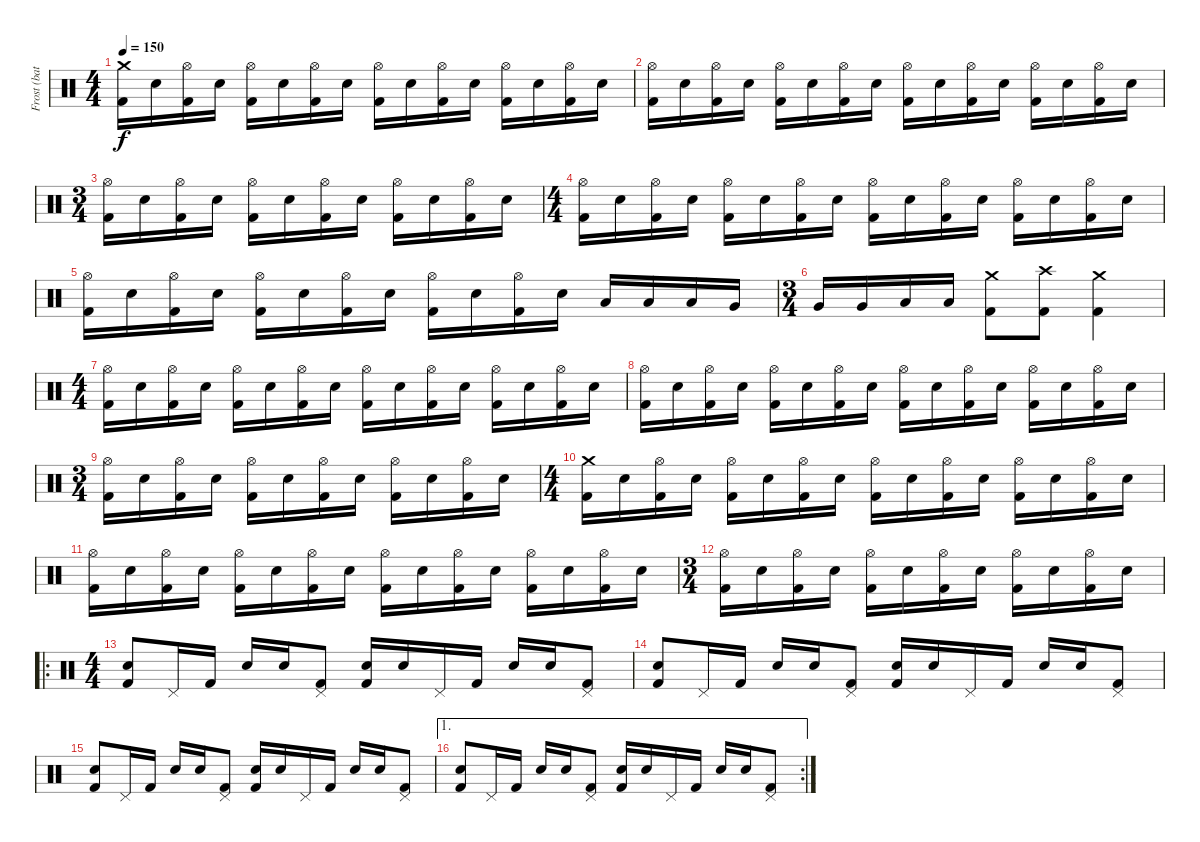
\track ("Frost (battery)" "Frost (bat") {instrument percussion}
\staff {score}
\articulation defaults
\ts (4 4)
\tempo 150
\clef neutral
\ks c
("Crash medium (hit)" "Kick (hit) 2").16{dy f} "Electric Snare (hit)".16 ("Hi-Hat (open)" "Kick (hit) 2").16 "Electric Snare (hit)".16 ("Hi-Hat (open)" "Kick (hit) 2").16 "Electric Snare (hit)".16 ("Hi-Hat (open)" "Kick (hit) 2").16 "Electric Snare (hit)".16 ("Hi-Hat (open)" "Kick (hit) 2").16 "Electric Snare (hit)".16 ("Hi-Hat (open)" "Kick (hit) 2").16 "Electric Snare (hit)".16 ("Hi-Hat (open)" "Kick (hit) 2").16 "Electric Snare (hit)".16 ("Hi-Hat (open)" "Kick (hit) 2").16 "Electric Snare (hit)".16 |
("Hi-Hat (open)" "Kick (hit) 2").16 "Electric Snare (hit)".16 ("Hi-Hat (open)" "Kick (hit) 2").16 "Electric Snare (hit)".16 ("Hi-Hat (open)" "Kick (hit) 2").16 "Electric Snare (hit)".16 ("Hi-Hat (open)" "Kick (hit) 2").16 "Electric Snare (hit)".16 ("Hi-Hat (open)" "Kick (hit) 2").16 "Electric Snare (hit)".16 ("Hi-Hat (open)" "Kick (hit) 2").16 "Electric Snare (hit)".16 ("Hi-Hat (open)" "Kick (hit) 2").16 "Electric Snare (hit)".16 ("Hi-Hat (open)" "Kick (hit) 2").16 "Electric Snare (hit)".16 |
\ts (3 4)
("Hi-Hat (open)" "Kick (hit) 2").16 "Electric Snare (hit)".16 ("Hi-Hat (open)" "Kick (hit) 2").16 "Electric Snare (hit)".16 ("Hi-Hat (open)" "Kick (hit) 2").16 "Electric Snare (hit)".16 ("Hi-Hat (open)" "Kick (hit) 2").16 "Electric Snare (hit)".16 ("Hi-Hat (open)" "Kick (hit) 2").16 "Electric Snare (hit)".16 ("Hi-Hat (open)" "Kick (hit) 2").16 "Electric Snare (hit)".16 |
\ts (4 4)
("Hi-Hat (open)" "Kick (hit) 2").16 "Electric Snare (hit)".16 ("Hi-Hat (open)" "Kick (hit) 2").16 "Electric Snare (hit)".16 ("Hi-Hat (open)" "Kick (hit) 2").16 "Electric Snare (hit)".16 ("Hi-Hat (open)" "Kick (hit) 2").16 "Electric Snare (hit)".16 ("Hi-Hat (open)" "Kick (hit) 2").16 "Electric Snare (hit)".16 ("Hi-Hat (open)" "Kick (hit) 2").16 "Electric Snare (hit)".16 ("Hi-Hat (open)" "Kick (hit) 2").16 "Electric Snare (hit)".16 ("Hi-Hat (open)" "Kick (hit) 2").16 "Electric Snare (hit)".16 |
("Hi-Hat (open)" "Kick (hit) 2").16 "Electric Snare (hit)".16 ("Hi-Hat (open)" "Kick (hit) 2").16 "Electric Snare (hit)".16 ("Hi-Hat (open)" "Kick (hit) 2").16 "Electric Snare (hit)".16 ("Hi-Hat (open)" "Kick (hit) 2").16 "Electric Snare (hit)".16 ("Hi-Hat (open)" "Kick (hit) 2").16 "Electric Snare (hit)".16 ("Hi-Hat (open)" "Kick (hit) 2").16 "Electric Snare (hit)".16 "Low Tom (hit)".16 "Low Tom (hit)".16 "Low Tom (hit)".16 "Very Low Tom (hit)".16 |
\ts (3 4)
"Very Low Tom (hit)".16 "Very Low Tom (hit)".16 "Low Floor Tom (hit)".16 "Low Floor Tom (hit)".16 ("Crash medium (hit)" "Kick (hit) 2").8 ("Crash high (hit)" "Kick (hit) 2").8 ("Crash medium (hit)" "Kick (hit) 2").4 |
\ts (4 4)
("Hi-Hat (open)" "Kick (hit) 2").16 "Electric Snare (hit)".16 ("Hi-Hat (open)" "Kick (hit) 2").16 "Electric Snare (hit)".16 ("Hi-Hat (open)" "Kick (hit) 2").16 "Electric Snare (hit)".16 ("Hi-Hat (open)" "Kick (hit) 2").16 "Electric Snare (hit)".16 ("Hi-Hat (open)" "Kick (hit) 2").16 "Electric Snare (hit)".16 ("Hi-Hat (open)" "Kick (hit) 2").16 "Electric Snare (hit)".16 ("Hi-Hat (open)" "Kick (hit) 2").16 "Electric Snare (hit)".16 ("Hi-Hat (open)" "Kick (hit) 2").16 "Electric Snare (hit)".16 |
("Hi-Hat (open)" "Kick (hit) 2").16 "Electric Snare (hit)".16 ("Hi-Hat (open)" "Kick (hit) 2").16 "Electric Snare (hit)".16 ("Hi-Hat (open)" "Kick (hit) 2").16 "Electric Snare (hit)".16 ("Hi-Hat (open)" "Kick (hit) 2").16 "Electric Snare (hit)".16 ("Hi-Hat (open)" "Kick (hit) 2").16 "Electric Snare (hit)".16 ("Hi-Hat (open)" "Kick (hit) 2").16 "Electric Snare (hit)".16 ("Hi-Hat (open)" "Kick (hit) 2").16 "Electric Snare (hit)".16 ("Hi-Hat (open)" "Kick (hit) 2").16 "Electric Snare (hit)".16 |
\ts (3 4)
("Hi-Hat (open)" "Kick (hit) 2").16 "Electric Snare (hit)".16 ("Hi-Hat (open)" "Kick (hit) 2").16 "Electric Snare (hit)".16 ("Hi-Hat (open)" "Kick (hit) 2").16 "Electric Snare (hit)".16 ("Hi-Hat (open)" "Kick (hit) 2").16 "Electric Snare (hit)".16 ("Hi-Hat (open)" "Kick (hit) 2").16 "Electric Snare (hit)".16 ("Hi-Hat (open)" "Kick (hit) 2").16 "Electric Snare (hit)".16 |
\ts (4 4)
("Crash medium (hit)" "Kick (hit) 2").16 "Electric Snare (hit)".16 ("Hi-Hat (open)" "Kick (hit) 2").16 "Electric Snare (hit)".16 ("Hi-Hat (open)" "Kick (hit) 2").16 "Electric Snare (hit)".16 ("Hi-Hat (open)" "Kick (hit) 2").16 "Electric Snare (hit)".16 ("Hi-Hat (open)" "Kick (hit) 2").16 "Electric Snare (hit)".16 ("Hi-Hat (open)" "Kick (hit) 2").16 "Electric Snare (hit)".16 ("Hi-Hat (open)" "Kick (hit) 2").16 "Electric Snare (hit)".16 ("Hi-Hat (open)" "Kick (hit) 2").16 "Electric Snare (hit)".16 |
("Hi-Hat (open)" "Kick (hit) 2").16 "Electric Snare (hit)".16 ("Hi-Hat (open)" "Kick (hit) 2").16 "Electric Snare (hit)".16 ("Hi-Hat (open)" "Kick (hit) 2").16 "Electric Snare (hit)".16 ("Hi-Hat (open)" "Kick (hit) 2").16 "Electric Snare (hit)".16 ("Hi-Hat (open)" "Kick (hit) 2").16 "Electric Snare (hit)".16 ("Hi-Hat (open)" "Kick (hit) 2").16 "Electric Snare (hit)".16 ("Hi-Hat (open)" "Kick (hit) 2").16 "Electric Snare (hit)".16 ("Hi-Hat (open)" "Kick (hit) 2").16 "Electric Snare (hit)".16 |
\ts (3 4)
("Hi-Hat (open)" "Kick (hit) 2").16 "Electric Snare (hit)".16 ("Hi-Hat (open)" "Kick (hit) 2").16 "Electric Snare (hit)".16 ("Hi-Hat (open)" "Kick (hit) 2").16 "Electric Snare (hit)".16 ("Hi-Hat (open)" "Kick (hit) 2").16 "Electric Snare (hit)".16 ("Hi-Hat (open)" "Kick (hit) 2").16 "Electric Snare (hit)".16 ("Hi-Hat (open)" "Kick (hit) 2").16 "Electric Snare (hit)".16 |
\ro
\ts (4 4)
("Electric Snare (hit)" "Kick (hit) 2").8 "Pedal Hi-Hat (hit)".16 "Kick (hit) 2".16 "Electric Snare (hit)".16 "Electric Snare (hit)".16 ("Pedal Hi-Hat (hit)" "Kick (hit) 2").8 ("Electric Snare (hit)" "Kick (hit) 2").16 "Electric Snare (hit)".16 "Pedal Hi-Hat (hit)".16 "Kick (hit) 2".16 "Electric Snare (hit)".16 "Electric Snare (hit)".16 ("Pedal Hi-Hat (hit)" "Kick (hit) 2").8 |
("Electric Snare (hit)" "Kick (hit) 2").8 "Pedal Hi-Hat (hit)".16 "Kick (hit) 2".16 "Electric Snare (hit)".16 "Electric Snare (hit)".16 ("Pedal Hi-Hat (hit)" "Kick (hit) 2").8 ("Electric Snare (hit)" "Kick (hit) 2").16 "Electric Snare (hit)".16 "Pedal Hi-Hat (hit)".16 "Kick (hit) 2".16 "Electric Snare (hit)".16 "Electric Snare (hit)".16 ("Pedal Hi-Hat (hit)" "Kick (hit) 2").8 |
("Electric Snare (hit)" "Kick (hit) 2").8 "Pedal Hi-Hat (hit)".16 "Kick (hit) 2".16 "Electric Snare (hit)".16 "Electric Snare (hit)".16 ("Pedal Hi-Hat (hit)" "Kick (hit) 2").8 ("Electric Snare (hit)" "Kick (hit) 2").16 "Electric Snare (hit)".16 "Pedal Hi-Hat (hit)".16 "Kick (hit) 2".16 "Electric Snare (hit)".16 "Electric Snare (hit)".16 ("Pedal Hi-Hat (hit)" "Kick (hit) 2").8 |
\ae 1
\rc 2
("Electric Snare (hit)" "Kick (hit) 2").8 "Pedal Hi-Hat (hit)".16 "Kick (hit) 2".16 "Electric Snare (hit)".16 "Electric Snare (hit)".16 ("Pedal Hi-Hat (hit)" "Kick (hit) 2").8 ("Electric Snare (hit)" "Kick (hit) 2").16 "Electric Snare (hit)".16 "Pedal Hi-Hat (hit)".16 "Kick (hit) 2".16 "Electric Snare (hit)".16 "Electric Snare (hit)".16 ("Pedal Hi-Hat (hit)" "Kick (hit) 2").8
